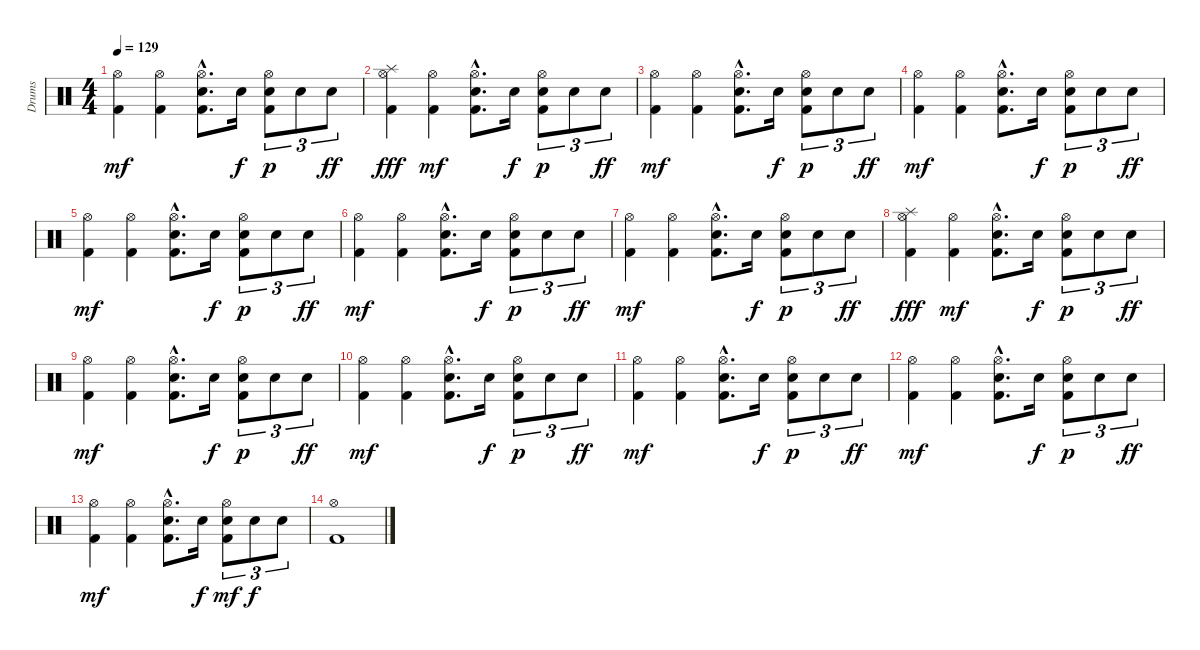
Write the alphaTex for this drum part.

\track ("Drums" "Drums") {instrument percussion}
\staff {score}
\articulation defaults
\ts (4 4)
\tempo 129
\clef neutral
\ks c
("Hi-Hat (open)" "Kick (hit) 2").4{dy mf} ("Hi-Hat (open)" "Kick (hit) 2").4 ("Hi-Hat (open)"{hac} "Electric Snare (hit)"{hac} "Kick (hit) 2"{hac}).8{d} "Electric Snare (hit)".16{dy f} ("Hi-Hat (open)" "Electric Snare (hit)" "Kick (hit) 2").8{tu (3 2) dy p} "Electric Snare (hit)".8{tu (3 2)} "Electric Snare (hit)".8{tu (3 2) dy ff} |
("Hi-Hat (open)" "Splash (hit)" "Kick (hit) 2").4{dy fff} ("Hi-Hat (open)" "Kick (hit) 2").4{dy mf} ("Hi-Hat (open)"{hac} "Electric Snare (hit)"{hac} "Kick (hit) 2"{hac}).8{d} "Electric Snare (hit)".16{dy f} ("Hi-Hat (open)" "Electric Snare (hit)" "Kick (hit) 2").8{tu (3 2) dy p} "Electric Snare (hit)".8{tu (3 2)} "Electric Snare (hit)".8{tu (3 2) dy ff} |
("Hi-Hat (open)" "Kick (hit) 2").4{dy mf} ("Hi-Hat (open)" "Kick (hit) 2").4 ("Hi-Hat (open)"{hac} "Electric Snare (hit)"{hac} "Kick (hit) 2"{hac}).8{d} "Electric Snare (hit)".16{dy f} ("Hi-Hat (open)" "Electric Snare (hit)" "Kick (hit) 2").8{tu (3 2) dy p} "Electric Snare (hit)".8{tu (3 2)} "Electric Snare (hit)".8{tu (3 2) dy ff} |
("Hi-Hat (open)" "Kick (hit) 2").4{dy mf} ("Hi-Hat (open)" "Kick (hit) 2").4 ("Hi-Hat (open)"{hac} "Electric Snare (hit)"{hac} "Kick (hit) 2"{hac}).8{d} "Electric Snare (hit)".16{dy f} ("Hi-Hat (open)" "Electric Snare (hit)" "Kick (hit) 2").8{tu (3 2) dy p} "Electric Snare (hit)".8{tu (3 2)} "Electric Snare (hit)".8{tu (3 2) dy ff} |
("Hi-Hat (open)" "Kick (hit) 2").4{dy mf} ("Hi-Hat (open)" "Kick (hit) 2").4 ("Hi-Hat (open)"{hac} "Electric Snare (hit)"{hac} "Kick (hit) 2"{hac}).8{d} "Electric Snare (hit)".16{dy f} ("Hi-Hat (open)" "Electric Snare (hit)" "Kick (hit) 2").8{tu (3 2) dy p} "Electric Snare (hit)".8{tu (3 2)} "Electric Snare (hit)".8{tu (3 2) dy ff} |
("Hi-Hat (open)" "Kick (hit) 2").4{dy mf} ("Hi-Hat (open)" "Kick (hit) 2").4 ("Hi-Hat (open)"{hac} "Electric Snare (hit)"{hac} "Kick (hit) 2"{hac}).8{d} "Electric Snare (hit)".16{dy f} ("Hi-Hat (open)" "Electric Snare (hit)" "Kick (hit) 2").8{tu (3 2) dy p} "Electric Snare (hit)".8{tu (3 2)} "Electric Snare (hit)".8{tu (3 2) dy ff} |
("Hi-Hat (open)" "Kick (hit) 2").4{dy mf} ("Hi-Hat (open)" "Kick (hit) 2").4 ("Hi-Hat (open)"{hac} "Electric Snare (hit)"{hac} "Kick (hit) 2"{hac}).8{d} "Electric Snare (hit)".16{dy f} ("Hi-Hat (open)" "Electric Snare (hit)" "Kick (hit) 2").8{tu (3 2) dy p} "Electric Snare (hit)".8{tu (3 2)} "Electric Snare (hit)".8{tu (3 2) dy ff} |
("Hi-Hat (open)" "Splash (hit)" "Kick (hit) 2").4{dy fff} ("Hi-Hat (open)" "Kick (hit) 2").4{dy mf} ("Hi-Hat (open)"{hac} "Electric Snare (hit)"{hac} "Kick (hit) 2"{hac}).8{d} "Electric Snare (hit)".16{dy f} ("Hi-Hat (open)" "Electric Snare (hit)" "Kick (hit) 2").8{tu (3 2) dy p} "Electric Snare (hit)".8{tu (3 2)} "Electric Snare (hit)".8{tu (3 2) dy ff} |
("Hi-Hat (open)" "Kick (hit) 2").4{dy mf} ("Hi-Hat (open)" "Kick (hit) 2").4 ("Hi-Hat (open)"{hac} "Electric Snare (hit)"{hac} "Kick (hit) 2"{hac}).8{d} "Electric Snare (hit)".16{dy f} ("Hi-Hat (open)" "Electric Snare (hit)" "Kick (hit) 2").8{tu (3 2) dy p} "Electric Snare (hit)".8{tu (3 2)} "Electric Snare (hit)".8{tu (3 2) dy ff} |
("Hi-Hat (open)" "Kick (hit) 2").4{dy mf} ("Hi-Hat (open)" "Kick (hit) 2").4 ("Hi-Hat (open)"{hac} "Electric Snare (hit)"{hac} "Kick (hit) 2"{hac}).8{d} "Electric Snare (hit)".16{dy f} ("Hi-Hat (open)" "Electric Snare (hit)" "Kick (hit) 2").8{tu (3 2) dy p} "Electric Snare (hit)".8{tu (3 2)} "Electric Snare (hit)".8{tu (3 2) dy ff} |
("Hi-Hat (open)" "Kick (hit) 2").4{dy mf} ("Hi-Hat (open)" "Kick (hit) 2").4 ("Hi-Hat (open)"{hac} "Electric Snare (hit)"{hac} "Kick (hit) 2"{hac}).8{d} "Electric Snare (hit)".16{dy f} ("Hi-Hat (open)" "Electric Snare (hit)" "Kick (hit) 2").8{tu (3 2) dy p} "Electric Snare (hit)".8{tu (3 2)} "Electric Snare (hit)".8{tu (3 2) dy ff} |
("Hi-Hat (open)" "Kick (hit) 2").4{dy mf} ("Hi-Hat (open)" "Kick (hit) 2").4 ("Hi-Hat (open)"{hac} "Electric Snare (hit)"{hac} "Kick (hit) 2"{hac}).8{d} "Electric Snare (hit)".16{dy f} ("Hi-Hat (open)" "Electric Snare (hit)" "Kick (hit) 2").8{tu (3 2) dy p} "Electric Snare (hit)".8{tu (3 2)} "Electric Snare (hit)".8{tu (3 2) dy ff} |
("Hi-Hat (open)" "Kick (hit) 2").4{dy mf} ("Hi-Hat (open)" "Kick (hit) 2").4 ("Hi-Hat (open)"{hac} "Electric Snare (hit)"{hac} "Kick (hit) 2"{hac}).8{d} "Electric Snare (hit)".16{dy f} ("Hi-Hat (open)" "Electric Snare (hit)" "Kick (hit) 2").8{tu (3 2) dy mf} "Electric Snare (hit)".8{tu (3 2) dy f} "Electric Snare (hit)".8{tu (3 2)} |
("Hi-Hat (open)" "Kick (hit) 2").1
